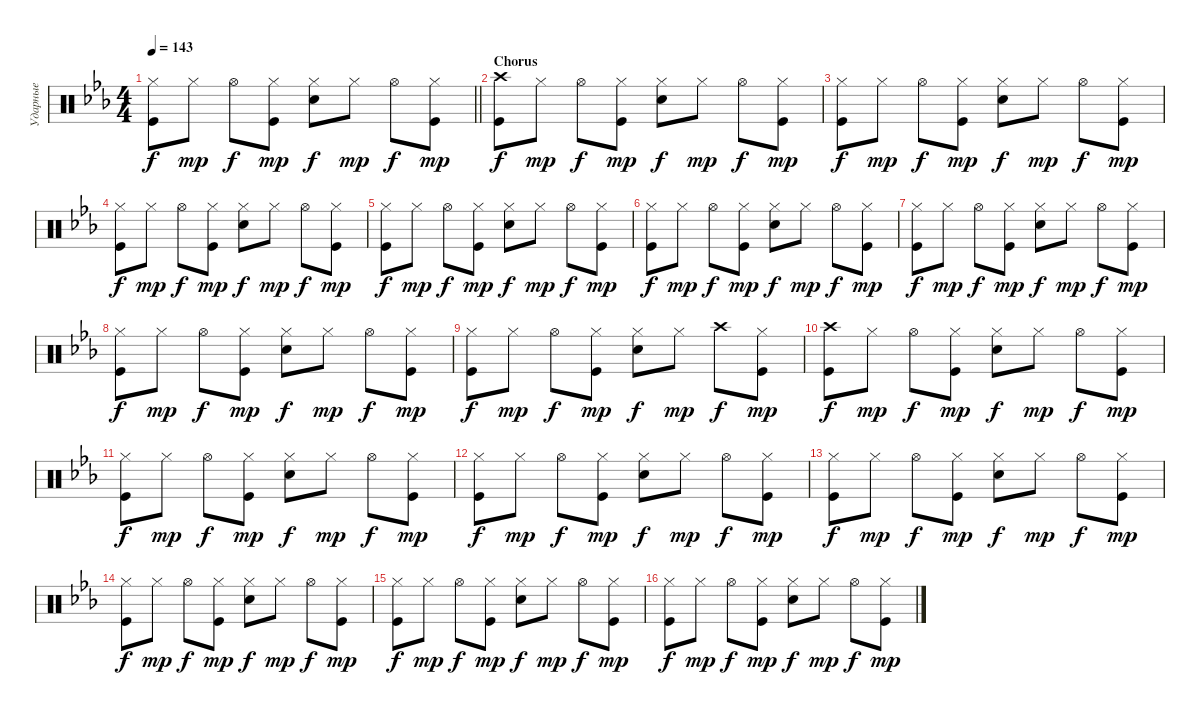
\track ("Ударные" "Ударные") {instrument percussion}
\staff {score}
\articulation defaults
\ts (4 4)
\tempo 143
\clef neutral
\barLineRight lightlight
\ks cminor
("Kick (hit)" "Hi-Hat (closed)").8{dy f} "Hi-Hat (closed)".8{dy mp} "Hi-Hat (open)".8{dy f} ("Kick (hit)" "Hi-Hat (closed)").8{dy mp} ("Snare (hit) 2" "Hi-Hat (closed)").8{dy f} "Hi-Hat (closed)".8{dy mp} "Hi-Hat (open)".8{dy f} ("Kick (hit)" "Hi-Hat (closed)").8{dy mp} |
\section ("" "Chorus")
("Kick (hit)" "Crash high (hit)").8{dy f} "Hi-Hat (closed)".8{dy mp} "Hi-Hat (open)".8{dy f} ("Kick (hit)" "Hi-Hat (closed)").8{dy mp} ("Snare (hit) 2" "Hi-Hat (closed)").8{dy f} "Hi-Hat (closed)".8{dy mp} "Hi-Hat (open)".8{dy f} ("Kick (hit)" "Hi-Hat (closed)").8{dy mp} |
("Kick (hit)" "Hi-Hat (closed)").8{dy f} "Hi-Hat (closed)".8{dy mp} "Hi-Hat (open)".8{dy f} ("Kick (hit)" "Hi-Hat (closed)").8{dy mp} ("Snare (hit) 2" "Hi-Hat (closed)").8{dy f} "Hi-Hat (closed)".8{dy mp} "Hi-Hat (open)".8{dy f} ("Kick (hit)" "Hi-Hat (closed)").8{dy mp} |
("Kick (hit)" "Hi-Hat (closed)").8{dy f} "Hi-Hat (closed)".8{dy mp} "Hi-Hat (open)".8{dy f} ("Kick (hit)" "Hi-Hat (closed)").8{dy mp} ("Snare (hit) 2" "Hi-Hat (closed)").8{dy f} "Hi-Hat (closed)".8{dy mp} "Hi-Hat (open)".8{dy f} ("Kick (hit)" "Hi-Hat (closed)").8{dy mp} |
("Kick (hit)" "Hi-Hat (closed)").8{dy f} "Hi-Hat (closed)".8{dy mp} "Hi-Hat (open)".8{dy f} ("Kick (hit)" "Hi-Hat (closed)").8{dy mp} ("Snare (hit) 2" "Hi-Hat (closed)").8{dy f} "Hi-Hat (closed)".8{dy mp} "Hi-Hat (open)".8{dy f} ("Kick (hit)" "Hi-Hat (closed)").8{dy mp} |
("Kick (hit)" "Hi-Hat (closed)").8{dy f} "Hi-Hat (closed)".8{dy mp} "Hi-Hat (open)".8{dy f} ("Kick (hit)" "Hi-Hat (closed)").8{dy mp} ("Snare (hit) 2" "Hi-Hat (closed)").8{dy f} "Hi-Hat (closed)".8{dy mp} "Hi-Hat (open)".8{dy f} ("Kick (hit)" "Hi-Hat (closed)").8{dy mp} |
("Kick (hit)" "Hi-Hat (closed)").8{dy f} "Hi-Hat (closed)".8{dy mp} "Hi-Hat (open)".8{dy f} ("Kick (hit)" "Hi-Hat (closed)").8{dy mp} ("Snare (hit) 2" "Hi-Hat (closed)").8{dy f} "Hi-Hat (closed)".8{dy mp} "Hi-Hat (open)".8{dy f} ("Kick (hit)" "Hi-Hat (closed)").8{dy mp} |
("Kick (hit)" "Hi-Hat (closed)").8{dy f} "Hi-Hat (closed)".8{dy mp} "Hi-Hat (open)".8{dy f} ("Kick (hit)" "Hi-Hat (closed)").8{dy mp} ("Snare (hit) 2" "Hi-Hat (closed)").8{dy f} "Hi-Hat (closed)".8{dy mp} "Hi-Hat (open)".8{dy f} ("Kick (hit)" "Hi-Hat (closed)").8{dy mp} |
("Kick (hit)" "Hi-Hat (closed)").8{dy f} "Hi-Hat (closed)".8{dy mp} "Hi-Hat (open)".8{dy f} ("Kick (hit)" "Hi-Hat (closed)").8{dy mp} ("Snare (hit) 2" "Hi-Hat (closed)").8{dy f} "Hi-Hat (closed)".8{dy mp} "Crash high (hit)".8{dy f} ("Kick (hit)" "Hi-Hat (closed)").8{dy mp} |
("Kick (hit)" "Crash high (hit)").8{dy f} "Hi-Hat (closed)".8{dy mp} "Hi-Hat (open)".8{dy f} ("Kick (hit)" "Hi-Hat (closed)").8{dy mp} ("Snare (hit) 2" "Hi-Hat (closed)").8{dy f} "Hi-Hat (closed)".8{dy mp} "Hi-Hat (open)".8{dy f} ("Kick (hit)" "Hi-Hat (closed)").8{dy mp} |
("Kick (hit)" "Hi-Hat (closed)").8{dy f} "Hi-Hat (closed)".8{dy mp} "Hi-Hat (open)".8{dy f} ("Kick (hit)" "Hi-Hat (closed)").8{dy mp} ("Snare (hit) 2" "Hi-Hat (closed)").8{dy f} "Hi-Hat (closed)".8{dy mp} "Hi-Hat (open)".8{dy f} ("Kick (hit)" "Hi-Hat (closed)").8{dy mp} |
("Kick (hit)" "Hi-Hat (closed)").8{dy f} "Hi-Hat (closed)".8{dy mp} "Hi-Hat (open)".8{dy f} ("Kick (hit)" "Hi-Hat (closed)").8{dy mp} ("Snare (hit) 2" "Hi-Hat (closed)").8{dy f} "Hi-Hat (closed)".8{dy mp} "Hi-Hat (open)".8{dy f} ("Kick (hit)" "Hi-Hat (closed)").8{dy mp} |
("Kick (hit)" "Hi-Hat (closed)").8{dy f} "Hi-Hat (closed)".8{dy mp} "Hi-Hat (open)".8{dy f} ("Kick (hit)" "Hi-Hat (closed)").8{dy mp} ("Snare (hit) 2" "Hi-Hat (closed)").8{dy f} "Hi-Hat (closed)".8{dy mp} "Hi-Hat (open)".8{dy f} ("Kick (hit)" "Hi-Hat (closed)").8{dy mp} |
("Kick (hit)" "Hi-Hat (closed)").8{dy f} "Hi-Hat (closed)".8{dy mp} "Hi-Hat (open)".8{dy f} ("Kick (hit)" "Hi-Hat (closed)").8{dy mp} ("Snare (hit) 2" "Hi-Hat (closed)").8{dy f} "Hi-Hat (closed)".8{dy mp} "Hi-Hat (open)".8{dy f} ("Kick (hit)" "Hi-Hat (closed)").8{dy mp} |
("Kick (hit)" "Hi-Hat (closed)").8{dy f} "Hi-Hat (closed)".8{dy mp} "Hi-Hat (open)".8{dy f} ("Kick (hit)" "Hi-Hat (closed)").8{dy mp} ("Snare (hit) 2" "Hi-Hat (closed)").8{dy f} "Hi-Hat (closed)".8{dy mp} "Hi-Hat (open)".8{dy f} ("Kick (hit)" "Hi-Hat (closed)").8{dy mp} |
("Kick (hit)" "Hi-Hat (closed)").8{dy f} "Hi-Hat (closed)".8{dy mp} "Hi-Hat (open)".8{dy f} ("Kick (hit)" "Hi-Hat (closed)").8{dy mp} ("Snare (hit) 2" "Hi-Hat (closed)").8{dy f} "Hi-Hat (closed)".8{dy mp} "Hi-Hat (open)".8{dy f} ("Kick (hit)" "Hi-Hat (closed)").8{dy mp}
